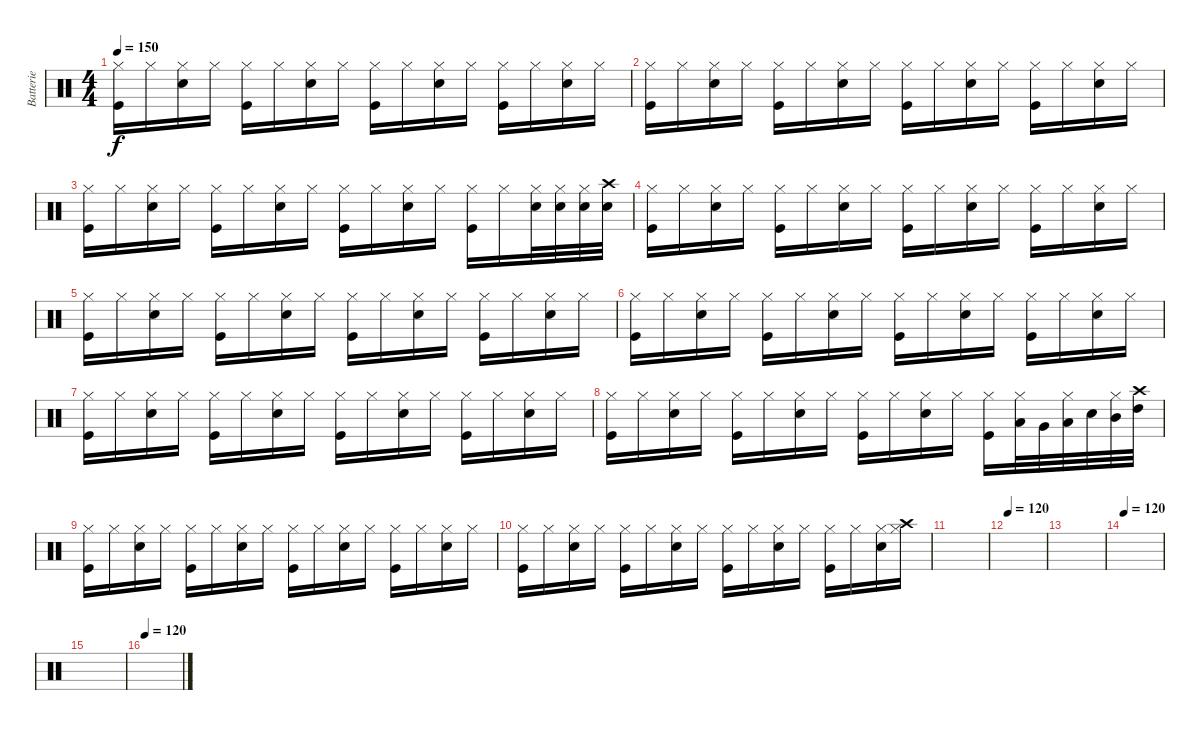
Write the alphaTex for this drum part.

\track ("Batterie" "Batterie") {instrument percussion}
\staff {score}
\articulation defaults
\ts (4 4)
\tempo 150
\clef neutral
\ks c
("Hi-Hat (closed)" "Kick (hit)").16{dy f} "Hi-Hat (closed)".16 ("Hi-Hat (closed)" "Snare (hit) 2").16 "Hi-Hat (closed)".16 ("Hi-Hat (closed)" "Kick (hit)").16 "Hi-Hat (closed)".16 ("Hi-Hat (closed)" "Snare (hit) 2").16 "Hi-Hat (closed)".16 ("Hi-Hat (closed)" "Kick (hit)").16 "Hi-Hat (closed)".16 ("Hi-Hat (closed)" "Snare (hit) 2").16 "Hi-Hat (closed)".16 ("Hi-Hat (closed)" "Kick (hit)").16 "Hi-Hat (closed)".16 ("Hi-Hat (closed)" "Snare (hit) 2").16 "Hi-Hat (closed)".16 |
("Hi-Hat (closed)" "Kick (hit)").16 "Hi-Hat (closed)".16 ("Hi-Hat (closed)" "Snare (hit) 2").16 "Hi-Hat (closed)".16 ("Hi-Hat (closed)" "Kick (hit)").16 "Hi-Hat (closed)".16 ("Hi-Hat (closed)" "Snare (hit) 2").16 "Hi-Hat (closed)".16 ("Hi-Hat (closed)" "Kick (hit)").16 "Hi-Hat (closed)".16 ("Hi-Hat (closed)" "Snare (hit) 2").16 "Hi-Hat (closed)".16 ("Hi-Hat (closed)" "Kick (hit)").16 "Hi-Hat (closed)".16 ("Hi-Hat (closed)" "Snare (hit) 2").16 "Hi-Hat (closed)".16 |
("Hi-Hat (closed)" "Kick (hit)").16 "Hi-Hat (closed)".16 ("Hi-Hat (closed)" "Snare (hit) 2").16 "Hi-Hat (closed)".16 ("Hi-Hat (closed)" "Kick (hit)").16 "Hi-Hat (closed)".16 ("Hi-Hat (closed)" "Snare (hit) 2").16 "Hi-Hat (closed)".16 ("Hi-Hat (closed)" "Kick (hit)").16 "Hi-Hat (closed)".16 ("Hi-Hat (closed)" "Snare (hit) 2").16 "Hi-Hat (closed)".16 ("Hi-Hat (closed)" "Kick (hit)").16 "Hi-Hat (closed)".16 ("Hi-Hat (closed)" "Snare (hit) 2").32 ("Hi-Hat (closed)" "Snare (hit) 2").32 ("Snare (hit) 2" "Hi-Hat (closed)").32 ("Snare (hit) 2" "Crash high (hit)").32 |
("Hi-Hat (closed)" "Kick (hit)").16 "Hi-Hat (closed)".16 ("Hi-Hat (closed)" "Snare (hit) 2").16 "Hi-Hat (closed)".16 ("Hi-Hat (closed)" "Kick (hit)").16 "Hi-Hat (closed)".16 ("Hi-Hat (closed)" "Snare (hit) 2").16 "Hi-Hat (closed)".16 ("Hi-Hat (closed)" "Kick (hit)").16 "Hi-Hat (closed)".16 ("Hi-Hat (closed)" "Snare (hit) 2").16 "Hi-Hat (closed)".16 ("Hi-Hat (closed)" "Kick (hit)").16 "Hi-Hat (closed)".16 ("Hi-Hat (closed)" "Snare (hit) 2").16 "Hi-Hat (closed)".16 |
("Hi-Hat (closed)" "Kick (hit)").16 "Hi-Hat (closed)".16 ("Hi-Hat (closed)" "Snare (hit) 2").16 "Hi-Hat (closed)".16 ("Hi-Hat (closed)" "Kick (hit)").16 "Hi-Hat (closed)".16 ("Hi-Hat (closed)" "Snare (hit) 2").16 "Hi-Hat (closed)".16 ("Hi-Hat (closed)" "Kick (hit)").16 "Hi-Hat (closed)".16 ("Hi-Hat (closed)" "Snare (hit) 2").16 "Hi-Hat (closed)".16 ("Hi-Hat (closed)" "Kick (hit)").16 "Hi-Hat (closed)".16 ("Hi-Hat (closed)" "Snare (hit) 2").16 "Hi-Hat (closed)".16 |
("Hi-Hat (closed)" "Kick (hit)").16 "Hi-Hat (closed)".16 ("Hi-Hat (closed)" "Snare (hit) 2").16 "Hi-Hat (closed)".16 ("Hi-Hat (closed)" "Kick (hit)").16 "Hi-Hat (closed)".16 ("Hi-Hat (closed)" "Snare (hit) 2").16 "Hi-Hat (closed)".16 ("Hi-Hat (closed)" "Kick (hit)").16 "Hi-Hat (closed)".16 ("Hi-Hat (closed)" "Snare (hit) 2").16 "Hi-Hat (closed)".16 ("Hi-Hat (closed)" "Kick (hit)").16 "Hi-Hat (closed)".16 ("Hi-Hat (closed)" "Snare (hit) 2").16 "Hi-Hat (closed)".16 |
("Hi-Hat (closed)" "Kick (hit)").16 "Hi-Hat (closed)".16 ("Hi-Hat (closed)" "Snare (hit) 2").16 "Hi-Hat (closed)".16 ("Hi-Hat (closed)" "Kick (hit)").16 "Hi-Hat (closed)".16 ("Hi-Hat (closed)" "Snare (hit) 2").16 "Hi-Hat (closed)".16 ("Hi-Hat (closed)" "Kick (hit)").16 "Hi-Hat (closed)".16 ("Hi-Hat (closed)" "Snare (hit) 2").16 "Hi-Hat (closed)".16 ("Hi-Hat (closed)" "Kick (hit)").16 "Hi-Hat (closed)".16 ("Hi-Hat (closed)" "Snare (hit) 2").16 "Hi-Hat (closed)".16 |
("Hi-Hat (closed)" "Kick (hit)").16 "Hi-Hat (closed)".16 ("Hi-Hat (closed)" "Snare (hit) 2").16 "Hi-Hat (closed)".16 ("Hi-Hat (closed)" "Kick (hit)").16 "Hi-Hat (closed)".16 ("Hi-Hat (closed)" "Snare (hit) 2").16 "Hi-Hat (closed)".16 ("Hi-Hat (closed)" "Kick (hit)").16 "Hi-Hat (closed)".16 ("Hi-Hat (closed)" "Snare (hit) 2").16 "Hi-Hat (closed)".16 ("Hi-Hat (closed)" "Kick (hit)").16 ("Hi-Hat (closed)" "Low Floor Tom (hit)").32 "Very Low Tom (hit)".32 ("Hi-Hat (closed)" "Low Tom (hit)").32 "Snare (hit) 2".32 ("Hi-Hat (closed)" "Mid Tom (hit)").32 ("High Tom (hit)" "Crash high (hit)").32 |
("Hi-Hat (closed)" "Kick (hit)").16 "Hi-Hat (closed)".16 ("Hi-Hat (closed)" "Snare (hit) 2").16 "Hi-Hat (closed)".16 ("Hi-Hat (closed)" "Kick (hit)").16 "Hi-Hat (closed)".16 ("Hi-Hat (closed)" "Snare (hit) 2").16 "Hi-Hat (closed)".16 ("Hi-Hat (closed)" "Kick (hit)").16 "Hi-Hat (closed)".16 ("Hi-Hat (closed)" "Snare (hit) 2").16 "Hi-Hat (closed)".16 ("Hi-Hat (closed)" "Kick (hit)").16 "Hi-Hat (closed)".16 ("Hi-Hat (closed)" "Snare (hit) 2").16 "Hi-Hat (closed)".16 |
("Hi-Hat (closed)" "Kick (hit)").16 "Hi-Hat (closed)".16 ("Hi-Hat (closed)" "Snare (hit) 2").16 "Hi-Hat (closed)".16 ("Hi-Hat (closed)" "Kick (hit)").16 "Hi-Hat (closed)".16 ("Hi-Hat (closed)" "Snare (hit) 2").16 "Hi-Hat (closed)".16 ("Hi-Hat (closed)" "Kick (hit)").16 "Hi-Hat (closed)".16 ("Hi-Hat (closed)" "Snare (hit) 2").16 "Hi-Hat (closed)".16 ("Hi-Hat (closed)" "Kick (hit)").16 "Hi-Hat (closed)".16 ("Hi-Hat (closed)" "Snare (hit) 2").16 ("Hi-Hat (closed)" "Crash high (hit)").16 |
|
\tempo 120
|
|
\tempo 120
|
|
\tempo 120
